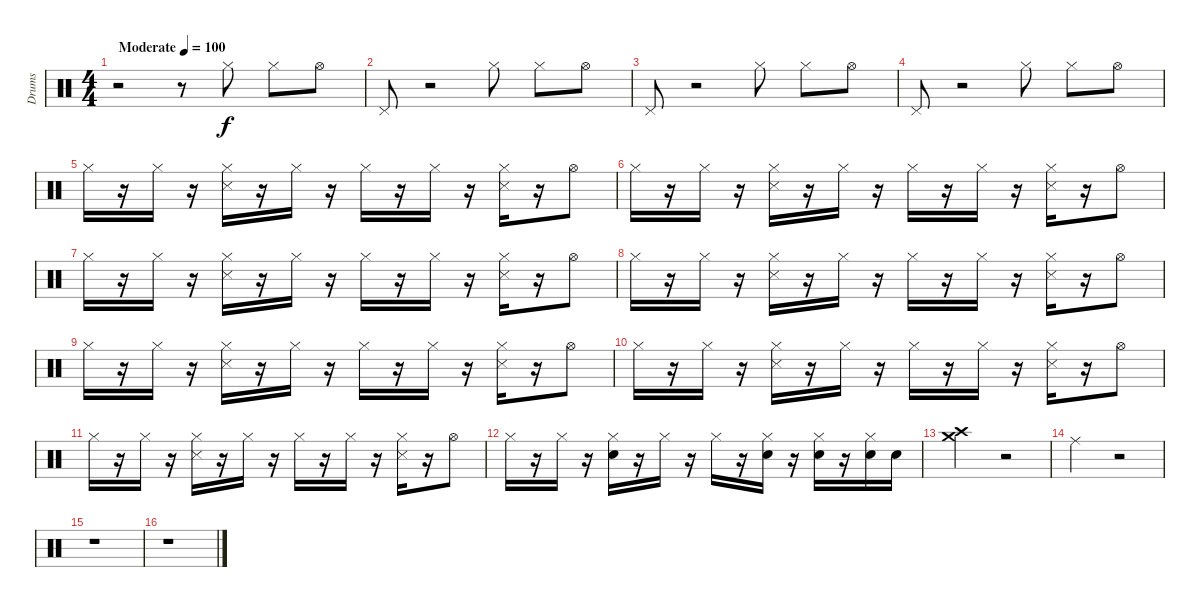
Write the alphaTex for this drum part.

\track ("Drums" "Drums") {instrument percussion}
\staff {score}
\articulation defaults
\ts (4 4)
\tempo (100 "Moderate")
\clef neutral
\ks c
r.2{dy f} r.8 "Hi-Hat (closed)".8 "Hi-Hat (closed)".8 "Hi-Hat (open)".8 |
"Pedal Hi-Hat (hit)".8 r.2 "Hi-Hat (closed)".8 "Hi-Hat (closed)".8 "Hi-Hat (open)".8 |
"Pedal Hi-Hat (hit)".8 r.2 "Hi-Hat (closed)".8 "Hi-Hat (closed)".8 "Hi-Hat (open)".8 |
"Pedal Hi-Hat (hit)".8 r.2 "Hi-Hat (closed)".8 "Hi-Hat (closed)".8 "Hi-Hat (open)".8 |
"Hi-Hat (closed)".16 r.16 "Hi-Hat (closed)".16 r.16 ("Hi-Hat (closed)" "Snare (side stick) 3").16 r.16 "Hi-Hat (closed)".16 r.16 "Hi-Hat (closed)".16 r.16 "Hi-Hat (closed)".16 r.16 ("Snare (side stick) 3" "Hi-Hat (closed)").16 r.16 "Hi-Hat (open)".8 |
"Hi-Hat (closed)".16 r.16 "Hi-Hat (closed)".16 r.16 ("Hi-Hat (closed)" "Snare (side stick) 3").16 r.16 "Hi-Hat (closed)".16 r.16 "Hi-Hat (closed)".16 r.16 "Hi-Hat (closed)".16 r.16 ("Snare (side stick) 3" "Hi-Hat (closed)").16 r.16 "Hi-Hat (open)".8 |
"Hi-Hat (closed)".16 r.16 "Hi-Hat (closed)".16 r.16 ("Snare (side stick) 3" "Hi-Hat (closed)").16 r.16 "Hi-Hat (closed)".16 r.16 "Hi-Hat (closed)".16 r.16 "Hi-Hat (closed)".16 r.16 ("Snare (side stick) 3" "Hi-Hat (closed)").16 r.16 "Hi-Hat (open)".8 |
"Hi-Hat (closed)".16 r.16 "Hi-Hat (closed)".16 r.16 ("Snare (side stick) 3" "Hi-Hat (closed)").16 r.16 "Hi-Hat (closed)".16 r.16 "Hi-Hat (closed)".16 r.16 "Hi-Hat (closed)".16 r.16 ("Snare (side stick) 3" "Hi-Hat (closed)").16 r.16 "Hi-Hat (open)".8 |
"Hi-Hat (closed)".16 r.16 "Hi-Hat (closed)".16 r.16 ("Hi-Hat (closed)" "Snare (side stick) 3").16 r.16 "Hi-Hat (closed)".16 r.16 "Hi-Hat (closed)".16 r.16 "Hi-Hat (closed)".16 r.16 ("Snare (side stick) 3" "Hi-Hat (closed)").16 r.16 "Hi-Hat (open)".8 |
"Hi-Hat (closed)".16 r.16 "Hi-Hat (closed)".16 r.16 ("Snare (side stick) 3" "Hi-Hat (closed)").16 r.16 "Hi-Hat (closed)".16 r.16 "Hi-Hat (closed)".16 r.16 "Hi-Hat (closed)".16 r.16 ("Hi-Hat (closed)" "Snare (side stick) 3").16 r.16 "Hi-Hat (open)".8 |
"Hi-Hat (closed)".16 r.16 "Hi-Hat (closed)".16 r.16 ("Snare (side stick) 3" "Hi-Hat (closed)").16 r.16 "Hi-Hat (closed)".16 r.16 "Hi-Hat (closed)".16 r.16 "Hi-Hat (closed)".16 r.16 ("Snare (side stick) 3" "Hi-Hat (closed)").16 r.16 "Hi-Hat (open)".8 |
"Hi-Hat (closed)".16 r.16 "Hi-Hat (closed)".16 r.16 ("Snare (hit) 2" "Hi-Hat (closed)").16 r.16 "Hi-Hat (closed)".16 r.16 "Hi-Hat (closed)".16 r.16 ("Hi-Hat (closed)" "Snare (hit) 2").16 r.16 ("Hi-Hat (closed)" "Snare (hit) 2").16 r.16 ("Hi-Hat (closed)" "Snare (hit) 2").16 "Snare (hit) 2".16 |
("Crash medium (hit)" "Crash high (hit)").2 r.2 |
"Ride (middle)".2 r.2 |
r.1 |
r.1
